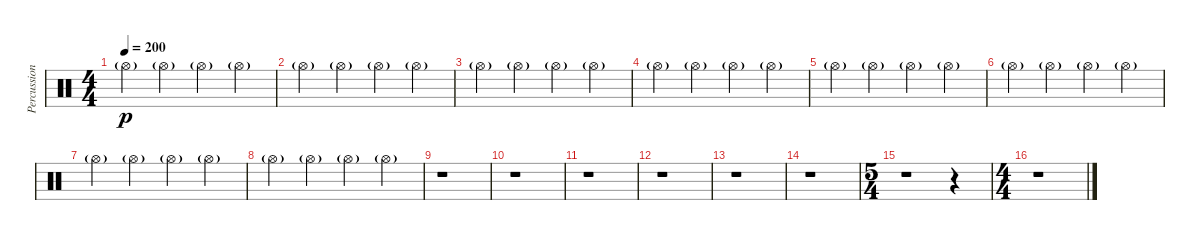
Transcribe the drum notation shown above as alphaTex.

\track ("Percussion 2" "Percussion") {instrument percussion}
\staff {score}
\articulation defaults
\ts (4 4)
\tempo 200
\clef neutral
\ks c "Hi-Hat (open)"{g}.4{dy p} "Hi-Hat (open)"{g}.4 "Hi-Hat (open)"{g}.4 "Hi-Hat (open)"{g}.4
|
"Hi-Hat (open)"{g}.4 "Hi-Hat (open)"{g}.4 "Hi-Hat (open)"{g}.4 "Hi-Hat (open)"{g}.4 |
"Hi-Hat (open)"{g}.4 "Hi-Hat (open)"{g}.4 "Hi-Hat (open)"{g}.4 "Hi-Hat (open)"{g}.4 |
"Hi-Hat (open)"{g}.4 "Hi-Hat (open)"{g}.4 "Hi-Hat (open)"{g}.4 "Hi-Hat (open)"{g}.4 |
"Hi-Hat (open)"{g}.4 "Hi-Hat (open)"{g}.4 "Hi-Hat (open)"{g}.4 "Hi-Hat (open)"{g}.4 |
"Hi-Hat (open)"{g}.4 "Hi-Hat (open)"{g}.4 "Hi-Hat (open)"{g}.4 "Hi-Hat (open)"{g}.4 |
"Hi-Hat (open)"{g}.4 "Hi-Hat (open)"{g}.4 "Hi-Hat (open)"{g}.4 "Hi-Hat (open)"{g}.4 |
"Hi-Hat (open)"{g}.4 "Hi-Hat (open)"{g}.4 "Hi-Hat (open)"{g}.4 "Hi-Hat (open)"{g}.4 |
r.1 |
r.1 |
r.1 |
r.1 |
r.1 |
r.1 |
\ts (5 4)
r.1 r.4 |
\ts (4 4)
r.1
